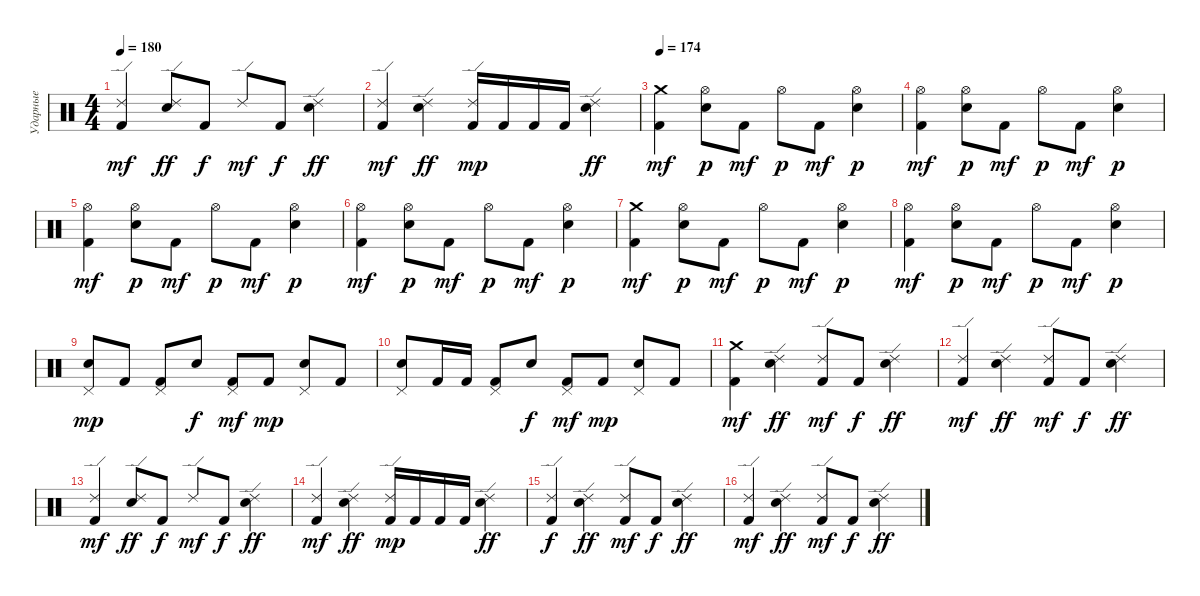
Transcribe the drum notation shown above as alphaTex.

\track ("Ударные" "Ударные") {instrument percussion}
\staff {score}
\articulation defaults
\ts (4 4)
\tempo 180
\clef neutral
\ks c
("Ride (edge) 2" "Kick (hit) 2").4{dy mf} ("Ride (edge) 2" "Electric Snare (hit)").8{dy ff} "Kick (hit) 2".8{dy f} "Ride (edge) 2".8{dy mf} "Kick (hit) 2".8{dy f} ("Ride (edge) 2" "Electric Snare (hit)").4{dy ff} |
("Ride (edge) 2" "Kick (hit) 2").4{dy mf} ("Ride (edge) 2" "Electric Snare (hit)").4{dy ff} ("Ride (edge) 2" "Kick (hit) 2").16{dy mp} "Kick (hit) 2".16 "Kick (hit) 2".16 "Kick (hit) 2".16 ("Ride (edge) 2" "Electric Snare (hit)").4{dy ff} |
\section ("" "")
\tempo 174
("Crash medium (hit)" "Kick (hit) 2").4{dy mf} ("Hi-Hat (open)" "Electric Snare (hit)").8{dy p} "Kick (hit) 2".8{dy mf} "Hi-Hat (open)".8{dy p} "Kick (hit) 2".8{dy mf} ("Hi-Hat (open)" "Electric Snare (hit)").4{dy p} |
("Hi-Hat (open)" "Kick (hit) 2").4{dy mf} ("Hi-Hat (open)" "Electric Snare (hit)").8{dy p} "Kick (hit) 2".8{dy mf} "Hi-Hat (open)".8{dy p} "Kick (hit) 2".8{dy mf} ("Hi-Hat (open)" "Electric Snare (hit)").4{dy p} |
("Hi-Hat (open)" "Kick (hit) 2").4{dy mf} ("Hi-Hat (open)" "Electric Snare (hit)").8{dy p} "Kick (hit) 2".8{dy mf} "Hi-Hat (open)".8{dy p} "Kick (hit) 2".8{dy mf} ("Hi-Hat (open)" "Electric Snare (hit)").4{dy p} |
("Hi-Hat (open)" "Kick (hit) 2").4{dy mf} ("Hi-Hat (open)" "Electric Snare (hit)").8{dy p} "Kick (hit) 2".8{dy mf} "Hi-Hat (open)".8{dy p} "Kick (hit) 2".8{dy mf} ("Hi-Hat (open)" "Electric Snare (hit)").4{dy p} |
("Crash medium (hit)" "Kick (hit) 2").4{dy mf} ("Hi-Hat (open)" "Electric Snare (hit)").8{dy p} "Kick (hit) 2".8{dy mf} "Hi-Hat (open)".8{dy p} "Kick (hit) 2".8{dy mf} ("Hi-Hat (open)" "Electric Snare (hit)").4{dy p} |
("Hi-Hat (open)" "Kick (hit) 2").4{dy mf} ("Hi-Hat (open)" "Electric Snare (hit)").8{dy p} "Kick (hit) 2".8{dy mf} "Hi-Hat (open)".8{dy p} "Kick (hit) 2".8{dy mf} ("Hi-Hat (open)" "Electric Snare (hit)").4{dy p} |
("Pedal Hi-Hat (hit)" "Electric Snare (hit)").8{dy mp} "Kick (hit) 2".8 ("Pedal Hi-Hat (hit)" "Kick (hit) 2").8 "Electric Snare (hit)".8{dy f} ("Pedal Hi-Hat (hit)" "Kick (hit) 2").8{dy mf} "Kick (hit) 2".8{dy mp} ("Pedal Hi-Hat (hit)" "Electric Snare (hit)").8 "Kick (hit) 2".8 |
("Pedal Hi-Hat (hit)" "Electric Snare (hit)").8 "Kick (hit) 2".16 "Kick (hit) 2".16 ("Pedal Hi-Hat (hit)" "Kick (hit) 2").8 "Electric Snare (hit)".8{dy f} ("Pedal Hi-Hat (hit)" "Kick (hit) 2").8{dy mf} "Kick (hit) 2".8{dy mp} ("Pedal Hi-Hat (hit)" "Electric Snare (hit)").8 "Kick (hit) 2".8 |
("Crash medium (hit)" "Kick (hit) 2").4{dy mf} ("Ride (edge) 2" "Electric Snare (hit)").4{dy ff} ("Ride (edge) 2" "Kick (hit) 2").8{dy mf} "Kick (hit) 2".8{dy f} ("Ride (edge) 2" "Electric Snare (hit)").4{dy ff} |
("Ride (edge) 2" "Kick (hit) 2").4{dy mf} ("Ride (edge) 2" "Electric Snare (hit)").4{dy ff} ("Ride (edge) 2" "Kick (hit) 2").8{dy mf} "Kick (hit) 2".8{dy f} ("Ride (edge) 2" "Electric Snare (hit)").4{dy ff} |
("Ride (edge) 2" "Kick (hit) 2").4{dy mf} ("Ride (edge) 2" "Electric Snare (hit)").8{dy ff} "Kick (hit) 2".8{dy f} "Ride (edge) 2".8{dy mf} "Kick (hit) 2".8{dy f} ("Ride (edge) 2" "Electric Snare (hit)").4{dy ff} |
("Ride (edge) 2" "Kick (hit) 2").4{dy mf} ("Ride (edge) 2" "Electric Snare (hit)").4{dy ff} ("Ride (edge) 2" "Kick (hit) 2").16{dy mp} "Kick (hit) 2".16 "Kick (hit) 2".16 "Kick (hit) 2".16 ("Ride (edge) 2" "Electric Snare (hit)").4{dy ff} |
("Ride (edge) 2" "Kick (hit) 2").4{dy f} ("Ride (edge) 2" "Electric Snare (hit)").4{dy ff} ("Ride (edge) 2" "Kick (hit) 2").8{dy mf} "Kick (hit) 2".8{dy f} ("Ride (edge) 2" "Electric Snare (hit)").4{dy ff} |
("Ride (edge) 2" "Kick (hit) 2").4{dy mf} ("Ride (edge) 2" "Electric Snare (hit)").4{dy ff} ("Ride (edge) 2" "Kick (hit) 2").8{dy mf} "Kick (hit) 2".8{dy f} ("Ride (edge) 2" "Electric Snare (hit)").4{dy ff}
